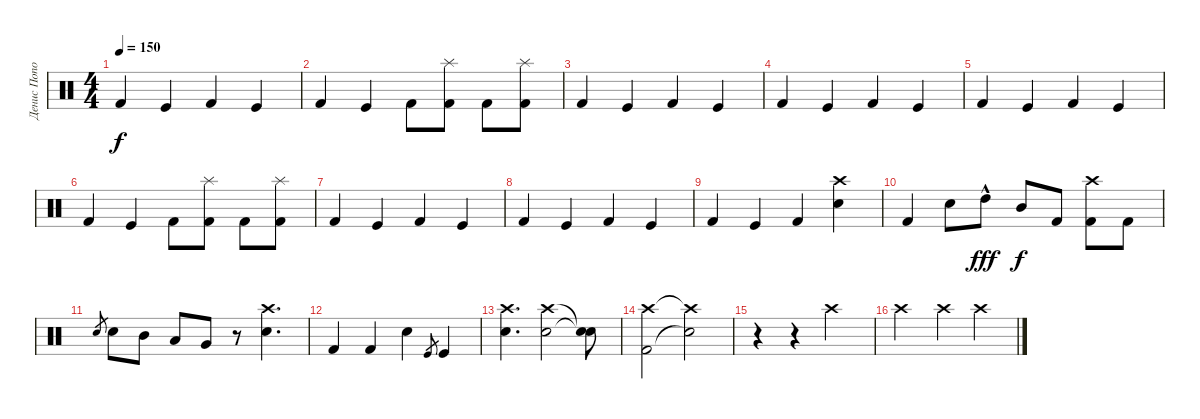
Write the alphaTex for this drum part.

\track ("Денис Попов" "Денис Попо") {instrument percussion}
\staff
\articulation defaults
\ts (4 4)
\tempo 150
\clef neutral
\ks c "Kick (hit) 2".4{dy f} "Kick (hit)".4 "Kick (hit) 2".4 "Kick (hit)".4
|
"Kick (hit) 2".4 "Kick (hit)".4 "Kick (hit) 2".8 ("Splash (hit)" "Kick (hit) 2").8 "Kick (hit) 2".8 ("Splash (hit)" "Kick (hit) 2").8 |
"Kick (hit) 2".4 "Kick (hit)".4 "Kick (hit) 2".4 "Kick (hit)".4 |
"Kick (hit) 2".4 "Kick (hit)".4 "Kick (hit) 2".4 "Kick (hit)".4 |
"Kick (hit) 2".4 "Kick (hit)".4 "Kick (hit) 2".4 "Kick (hit)".4 |
"Kick (hit) 2".4 "Kick (hit)".4 "Kick (hit) 2".8 ("Splash (hit)" "Kick (hit) 2").8 "Kick (hit) 2".8 ("Splash (hit)" "Kick (hit) 2").8 |
"Kick (hit) 2".4 "Kick (hit)".4 "Kick (hit) 2".4 "Kick (hit)".4 |
"Kick (hit) 2".4 "Kick (hit)".4 "Kick (hit) 2".4 "Kick (hit)".4 |
"Kick (hit) 2".4 "Kick (hit)".4 "Kick (hit) 2".4 ("Crash high (hit)" "Snare (hit) 2").4 |
"Kick (hit) 2".4 "Snare (hit) 2".8 "High Tom (hit)"{hac}.8{dy fff} "Mid Tom (hit)".8{dy f} "Kick (hit) 2".8 ("Crash high (hit)" "Kick (hit) 2").8 "Kick (hit) 2".8 |
"Electric Snare (hit)".8{gr} "Electric Snare (hit)".8 "Mid Tom (hit)".8 "Low Tom (hit)".8 "Very Low Tom (hit)".8 r.8 ("Crash high (hit)" "Snare (hit) 2").4{d} |
"Kick (hit) 2".4 "Kick (hit) 2".4 "Snare (hit) 2".4 "Kick (hit)".8{gr} "Kick (hit)".4 |
("Crash high (hit)" "Electric Snare (hit)").4{d} ("Crash high (hit)" "Snare (hit) 2").2 ("Snare (hit)"{t} "Snare (hit)"{t}).8 |
("Crash high (hit)" "Kick (hit) 2").2 ("Crash high (hit)"{t} "Snare (hit)"{t}).2 |
r.4 r.4 "Crash high (hit)".2 |
"Crash high (hit)".2 "Crash high (hit)".4 "Crash high (hit)".4
